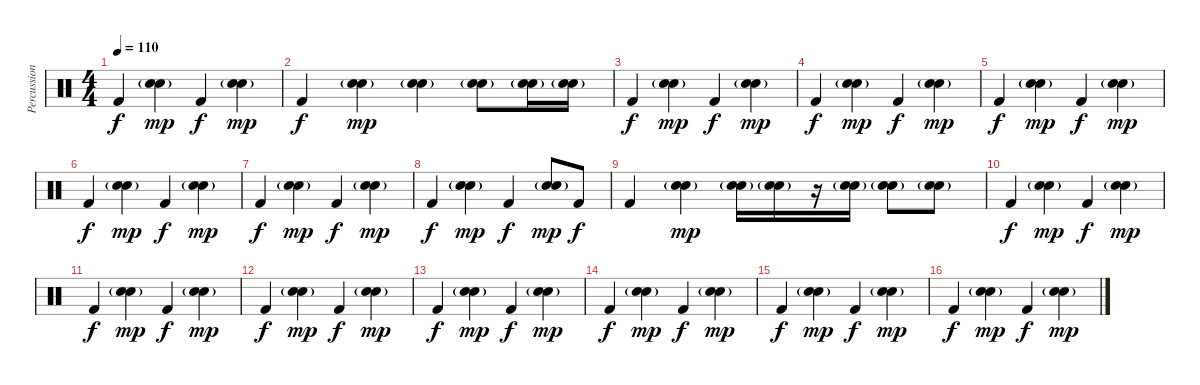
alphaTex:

\track ("Percussion" "Percussion") {instrument percussion}
\staff {score}
\articulation defaults
\ts (4 4)
\tempo 110
\clef neutral
\ks c "Kick (hit) 2".4{dy f}
("Electric Snare (hit)" "Snare (hit) 2"{g}).4{dy mp} "Kick (hit) 2".4{dy f} ("Electric Snare (hit)" "Snare (hit) 2"{g}).4{dy mp} |
"Kick (hit) 2".4{dy f} ("Electric Snare (hit)" "Snare (hit) 2"{g}).4{dy mp} ("Electric Snare (hit)" "Snare (hit) 2"{g}).4 ("Electric Snare (hit)" "Snare (hit) 2"{g}).8 ("Electric Snare (hit)"{g} "Snare (hit) 2"{g}).16 ("Electric Snare (hit)" "Snare (hit) 2"{g}).16 |
"Kick (hit) 2".4{dy f} ("Electric Snare (hit)" "Snare (hit) 2"{g}).4{dy mp} "Kick (hit) 2".4{dy f} ("Electric Snare (hit)" "Snare (hit) 2"{g}).4{dy mp} |
"Kick (hit) 2".4{dy f} ("Electric Snare (hit)" "Snare (hit) 2"{g}).4{dy mp} "Kick (hit) 2".4{dy f} ("Electric Snare (hit)" "Snare (hit) 2"{g}).4{dy mp} |
"Kick (hit) 2".4{dy f} ("Electric Snare (hit)" "Snare (hit) 2"{g}).4{dy mp} "Kick (hit) 2".4{dy f} ("Electric Snare (hit)" "Snare (hit) 2"{g}).4{dy mp} |
"Kick (hit) 2".4{dy f} ("Electric Snare (hit)" "Snare (hit) 2"{g}).4{dy mp} "Kick (hit) 2".4{dy f} ("Electric Snare (hit)" "Snare (hit) 2"{g}).4{dy mp} |
"Kick (hit) 2".4{dy f} ("Electric Snare (hit)" "Snare (hit) 2"{g}).4{dy mp} "Kick (hit) 2".4{dy f} ("Electric Snare (hit)" "Snare (hit) 2"{g}).4{dy mp} |
"Kick (hit) 2".4{dy f} ("Electric Snare (hit)" "Snare (hit) 2"{g}).4{dy mp} "Kick (hit) 2".4{dy f} ("Electric Snare (hit)" "Snare (hit) 2"{g}).8{dy mp} "Kick (hit) 2".8{dy f} |
"Kick (hit) 2".4 ("Electric Snare (hit)" "Snare (hit) 2"{g}).4{dy mp} ("Electric Snare (hit)" "Snare (hit) 2"{g}).16 ("Electric Snare (hit)"{g} "Snare (hit) 2"{g}).16 r.16 ("Electric Snare (hit)" "Snare (hit) 2"{g}).16 ("Electric Snare (hit)"{g} "Snare (hit) 2"{g}).8 ("Electric Snare (hit)" "Snare (hit) 2"{g}).8 |
"Kick (hit) 2".4{dy f} ("Electric Snare (hit)" "Snare (hit) 2"{g}).4{dy mp} "Kick (hit) 2".4{dy f} ("Electric Snare (hit)" "Snare (hit) 2"{g}).4{dy mp} |
"Kick (hit) 2".4{dy f} ("Electric Snare (hit)" "Snare (hit) 2"{g}).4{dy mp} "Kick (hit) 2".4{dy f} ("Electric Snare (hit)" "Snare (hit) 2"{g}).4{dy mp} |
"Kick (hit) 2".4{dy f} ("Electric Snare (hit)" "Snare (hit) 2"{g}).4{dy mp} "Kick (hit) 2".4{dy f} ("Electric Snare (hit)" "Snare (hit) 2"{g}).4{dy mp} |
"Kick (hit) 2".4{dy f} ("Electric Snare (hit)" "Snare (hit) 2"{g}).4{dy mp} "Kick (hit) 2".4{dy f} ("Electric Snare (hit)" "Snare (hit) 2"{g}).4{dy mp} |
"Kick (hit) 2".4{dy f} ("Electric Snare (hit)" "Snare (hit) 2"{g}).4{dy mp} "Kick (hit) 2".4{dy f} ("Electric Snare (hit)" "Snare (hit) 2"{g}).4{dy mp} |
"Kick (hit) 2".4{dy f} ("Electric Snare (hit)" "Snare (hit) 2"{g}).4{dy mp} "Kick (hit) 2".4{dy f} ("Electric Snare (hit)" "Snare (hit) 2"{g}).4{dy mp} |
"Kick (hit) 2".4{dy f} ("Electric Snare (hit)" "Snare (hit) 2"{g}).4{dy mp} "Kick (hit) 2".4{dy f} ("Electric Snare (hit)" "Snare (hit) 2"{g}).4{dy mp}
